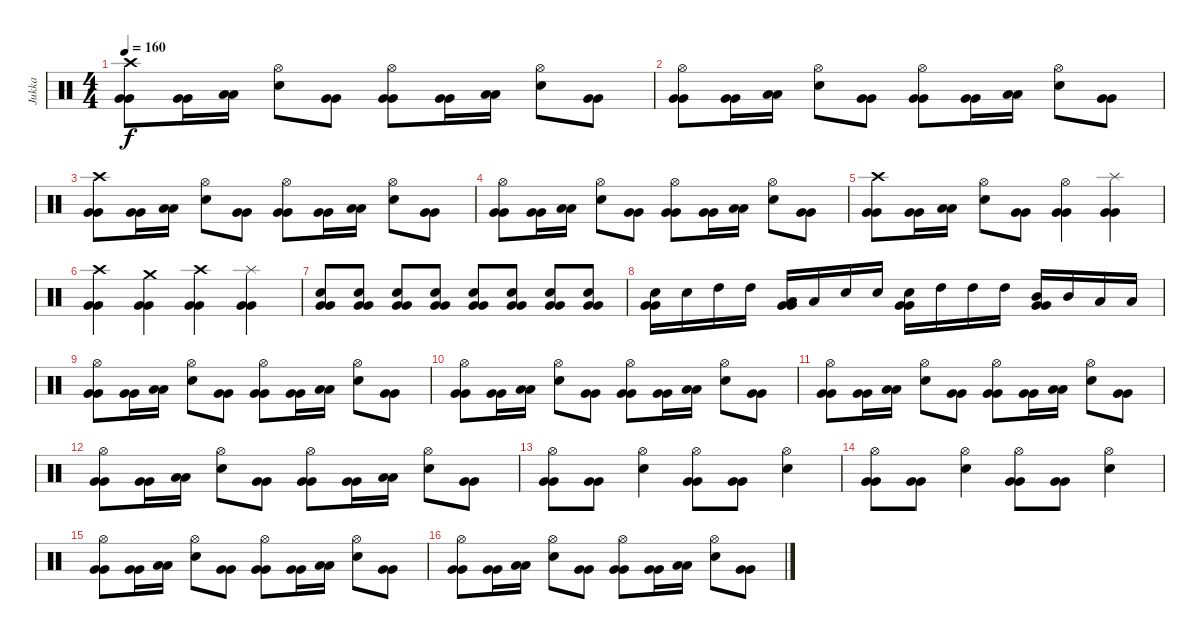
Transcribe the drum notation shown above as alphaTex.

\track ("Jukka" "Jukka") {instrument percussion}
\staff {score}
\articulation defaults
\ts (4 4)
\tempo 160
\clef neutral
\ks c
("Crash high (hit)" "Very Low Tom (hit)" "Very Low Tom (hit)").8{dy f} ("Very Low Tom (hit)" "Very Low Tom (hit)").16 ("Low Floor Tom (hit)" "Low Floor Tom (hit)").16 ("Hi-Hat (open)" "Electric Snare (hit)").8 ("Very Low Tom (hit)" "Very Low Tom (hit)").8 ("Hi-Hat (open)" "Very Low Tom (hit)" "Very Low Tom (hit)").8 ("Very Low Tom (hit)" "Very Low Tom (hit)").16 ("Low Floor Tom (hit)" "Low Floor Tom (hit)").16 ("Hi-Hat (open)" "Electric Snare (hit)").8 ("Very Low Tom (hit)" "Very Low Tom (hit)").8 |
("Hi-Hat (open)" "Very Low Tom (hit)" "Very Low Tom (hit)").8 ("Very Low Tom (hit)" "Very Low Tom (hit)").16 ("Low Floor Tom (hit)" "Low Floor Tom (hit)").16 ("Hi-Hat (open)" "Electric Snare (hit)").8 ("Very Low Tom (hit)" "Very Low Tom (hit)").8 ("Hi-Hat (open)" "Very Low Tom (hit)" "Very Low Tom (hit)").8 ("Very Low Tom (hit)" "Very Low Tom (hit)").16 ("Low Floor Tom (hit)" "Low Floor Tom (hit)").16 ("Hi-Hat (open)" "Electric Snare (hit)").8 ("Very Low Tom (hit)" "Very Low Tom (hit)").8 |
("Crash high (hit)" "Very Low Tom (hit)" "Very Low Tom (hit)").8 ("Very Low Tom (hit)" "Very Low Tom (hit)").16 ("Low Floor Tom (hit)" "Low Floor Tom (hit)").16 ("Hi-Hat (open)" "Electric Snare (hit)").8 ("Very Low Tom (hit)" "Very Low Tom (hit)").8 ("Hi-Hat (open)" "Very Low Tom (hit)" "Very Low Tom (hit)").8 ("Very Low Tom (hit)" "Very Low Tom (hit)").16 ("Low Floor Tom (hit)" "Low Floor Tom (hit)").16 ("Hi-Hat (open)" "Electric Snare (hit)").8 ("Very Low Tom (hit)" "Very Low Tom (hit)").8 |
("Hi-Hat (open)" "Very Low Tom (hit)" "Very Low Tom (hit)").8 ("Very Low Tom (hit)" "Very Low Tom (hit)").16 ("Low Floor Tom (hit)" "Low Floor Tom (hit)").16 ("Hi-Hat (open)" "Electric Snare (hit)").8 ("Very Low Tom (hit)" "Very Low Tom (hit)").8 ("Hi-Hat (open)" "Very Low Tom (hit)" "Very Low Tom (hit)").8 ("Very Low Tom (hit)" "Very Low Tom (hit)").16 ("Low Floor Tom (hit)" "Low Floor Tom (hit)").16 ("Hi-Hat (open)" "Electric Snare (hit)").8 ("Very Low Tom (hit)" "Very Low Tom (hit)").8 |
("Crash high (hit)" "Very Low Tom (hit)" "Very Low Tom (hit)").8 ("Very Low Tom (hit)" "Very Low Tom (hit)").16 ("Low Floor Tom (hit)" "Low Floor Tom (hit)").16 ("Hi-Hat (open)" "Electric Snare (hit)").8 ("Very Low Tom (hit)" "Very Low Tom (hit)").8 ("Hi-Hat (open)" "Very Low Tom (hit)" "Very Low Tom (hit)").4 ("Splash (hit)" "Very Low Tom (hit)" "Very Low Tom (hit)").4 |
("Crash high (hit)" "Very Low Tom (hit)" "Very Low Tom (hit)").4 ("Crash medium (hit)" "Very Low Tom (hit)" "Very Low Tom (hit)").4 ("Crash high (hit)" "Very Low Tom (hit)" "Very Low Tom (hit)").4 ("Splash (hit)" "Very Low Tom (hit)" "Very Low Tom (hit)").4 |
("Electric Snare (hit)" "Very Low Tom (hit)" "Very Low Tom (hit)").8 ("Electric Snare (hit)" "Very Low Tom (hit)" "Very Low Tom (hit)").8 ("Electric Snare (hit)" "Very Low Tom (hit)" "Very Low Tom (hit)").8 ("Electric Snare (hit)" "Very Low Tom (hit)" "Very Low Tom (hit)").8 ("Electric Snare (hit)" "Very Low Tom (hit)" "Very Low Tom (hit)").8 ("Electric Snare (hit)" "Very Low Tom (hit)" "Very Low Tom (hit)").8 ("Electric Snare (hit)" "Very Low Tom (hit)" "Very Low Tom (hit)").8 ("Electric Snare (hit)" "Very Low Tom (hit)" "Very Low Tom (hit)").8 |
("Electric Snare (hit)" "Very Low Tom (hit)" "Very Low Tom (hit)").16 "Electric Snare (hit)".16 "High Tom (hit)".16 "High Tom (hit)".16 ("Low Tom (hit)" "Very Low Tom (hit)" "Very Low Tom (hit)").16 "Low Tom (hit)".16 "Electric Snare (hit)".16 "Electric Snare (hit)".16 ("Electric Snare (hit)" "Very Low Tom (hit)" "Very Low Tom (hit)").16 "High Tom (hit)".16 "High Tom (hit)".16 "High Tom (hit)".16 ("Mid Tom (hit)" "Very Low Tom (hit)" "Very Low Tom (hit)").16 "Mid Tom (hit)".16 "Low Tom (hit)".16 "Low Tom (hit)".16 |
("Hi-Hat (open)" "Very Low Tom (hit)" "Very Low Tom (hit)").8 ("Very Low Tom (hit)" "Very Low Tom (hit)").16 ("Low Floor Tom (hit)" "Low Floor Tom (hit)").16 ("Hi-Hat (open)" "Electric Snare (hit)").8 ("Very Low Tom (hit)" "Very Low Tom (hit)").8 ("Hi-Hat (open)" "Very Low Tom (hit)" "Very Low Tom (hit)").8 ("Very Low Tom (hit)" "Very Low Tom (hit)").16 ("Low Floor Tom (hit)" "Low Floor Tom (hit)").16 ("Hi-Hat (open)" "Electric Snare (hit)").8 ("Very Low Tom (hit)" "Very Low Tom (hit)").8 |
("Hi-Hat (open)" "Very Low Tom (hit)" "Very Low Tom (hit)").8 ("Very Low Tom (hit)" "Very Low Tom (hit)").16 ("Low Floor Tom (hit)" "Low Floor Tom (hit)").16 ("Hi-Hat (open)" "Electric Snare (hit)").8 ("Very Low Tom (hit)" "Very Low Tom (hit)").8 ("Hi-Hat (open)" "Very Low Tom (hit)" "Very Low Tom (hit)").8 ("Very Low Tom (hit)" "Very Low Tom (hit)").16 ("Low Floor Tom (hit)" "Low Floor Tom (hit)").16 ("Hi-Hat (open)" "Electric Snare (hit)").8 ("Very Low Tom (hit)" "Very Low Tom (hit)").8 |
("Hi-Hat (open)" "Very Low Tom (hit)" "Very Low Tom (hit)").8 ("Very Low Tom (hit)" "Very Low Tom (hit)").16 ("Low Floor Tom (hit)" "Low Floor Tom (hit)").16 ("Hi-Hat (open)" "Electric Snare (hit)").8 ("Very Low Tom (hit)" "Very Low Tom (hit)").8 ("Hi-Hat (open)" "Very Low Tom (hit)" "Very Low Tom (hit)").8 ("Very Low Tom (hit)" "Very Low Tom (hit)").16 ("Low Floor Tom (hit)" "Low Floor Tom (hit)").16 ("Hi-Hat (open)" "Electric Snare (hit)").8 ("Very Low Tom (hit)" "Very Low Tom (hit)").8 |
("Hi-Hat (open)" "Very Low Tom (hit)" "Very Low Tom (hit)").8 ("Very Low Tom (hit)" "Very Low Tom (hit)").16 ("Low Floor Tom (hit)" "Low Floor Tom (hit)").16 ("Hi-Hat (open)" "Electric Snare (hit)").8 ("Very Low Tom (hit)" "Very Low Tom (hit)").8 ("Hi-Hat (open)" "Very Low Tom (hit)" "Very Low Tom (hit)").8 ("Very Low Tom (hit)" "Very Low Tom (hit)").16 ("Low Floor Tom (hit)" "Low Floor Tom (hit)").16 ("Hi-Hat (open)" "Electric Snare (hit)").8 ("Very Low Tom (hit)" "Very Low Tom (hit)").8 |
("Hi-Hat (open)" "Very Low Tom (hit)" "Very Low Tom (hit)").8 ("Very Low Tom (hit)" "Very Low Tom (hit)").8 ("Hi-Hat (open)" "Electric Snare (hit)").4 ("Hi-Hat (open)" "Very Low Tom (hit)" "Very Low Tom (hit)").8 ("Very Low Tom (hit)" "Very Low Tom (hit)").8 ("Hi-Hat (open)" "Electric Snare (hit)").4 |
("Hi-Hat (open)" "Very Low Tom (hit)" "Very Low Tom (hit)").8 ("Very Low Tom (hit)" "Very Low Tom (hit)").8 ("Hi-Hat (open)" "Electric Snare (hit)").4 ("Hi-Hat (open)" "Very Low Tom (hit)" "Very Low Tom (hit)").8 ("Very Low Tom (hit)" "Very Low Tom (hit)").8 ("Hi-Hat (open)" "Electric Snare (hit)").4 |
("Hi-Hat (open)" "Very Low Tom (hit)" "Very Low Tom (hit)").8 ("Very Low Tom (hit)" "Very Low Tom (hit)").16 ("Low Floor Tom (hit)" "Low Floor Tom (hit)").16 ("Hi-Hat (open)" "Electric Snare (hit)").8 ("Very Low Tom (hit)" "Very Low Tom (hit)").8 ("Hi-Hat (open)" "Very Low Tom (hit)" "Very Low Tom (hit)").8 ("Very Low Tom (hit)" "Very Low Tom (hit)").16 ("Low Floor Tom (hit)" "Low Floor Tom (hit)").16 ("Hi-Hat (open)" "Electric Snare (hit)").8 ("Very Low Tom (hit)" "Very Low Tom (hit)").8 |
("Hi-Hat (open)" "Very Low Tom (hit)" "Very Low Tom (hit)").8 ("Very Low Tom (hit)" "Very Low Tom (hit)").16 ("Low Floor Tom (hit)" "Low Floor Tom (hit)").16 ("Hi-Hat (open)" "Electric Snare (hit)").8 ("Very Low Tom (hit)" "Very Low Tom (hit)").8 ("Hi-Hat (open)" "Very Low Tom (hit)" "Very Low Tom (hit)").8 ("Very Low Tom (hit)" "Very Low Tom (hit)").16 ("Low Floor Tom (hit)" "Low Floor Tom (hit)").16 ("Hi-Hat (open)" "Electric Snare (hit)").8 ("Very Low Tom (hit)" "Very Low Tom (hit)").8
